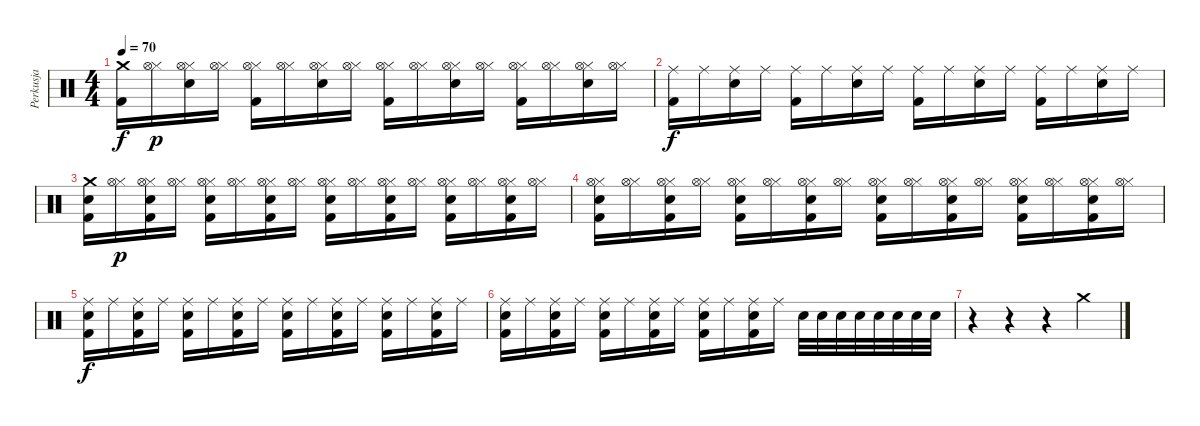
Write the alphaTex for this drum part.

\track ("Perkusja" "Perkusja") {instrument percussion}
\staff {score}
\articulation defaults
\ts (4 4)
\tempo 70
\clef neutral
\ks c
("Kick (hit) 2" "Crash medium (hit)").16{dy f} ("Hi-Hat (closed)" "Hi-Hat (open)").16{dy p} ("Electric Snare (hit)" "Hi-Hat (closed)" "Hi-Hat (open)").16 ("Hi-Hat (closed)" "Hi-Hat (open)").16 ("Kick (hit) 2" "Hi-Hat (closed)" "Hi-Hat (open)").16 ("Hi-Hat (closed)" "Hi-Hat (open)").16 ("Electric Snare (hit)" "Hi-Hat (closed)" "Hi-Hat (open)").16 ("Hi-Hat (closed)" "Hi-Hat (open)").16 ("Kick (hit) 2" "Hi-Hat (closed)" "Hi-Hat (open)").16 ("Hi-Hat (closed)" "Hi-Hat (open)").16 ("Electric Snare (hit)" "Hi-Hat (closed)" "Hi-Hat (open)").16 ("Hi-Hat (closed)" "Hi-Hat (open)").16 ("Kick (hit) 2" "Hi-Hat (closed)" "Hi-Hat (open)").16 ("Hi-Hat (closed)" "Hi-Hat (open)").16 ("Electric Snare (hit)" "Hi-Hat (closed)" "Hi-Hat (open)").16 ("Hi-Hat (closed)" "Hi-Hat (open)").16 |
("Kick (hit) 2" "Ride (middle)").16{dy f} "Ride (middle)".16 ("Electric Snare (hit)" "Ride (middle)").16 "Ride (middle)".16 ("Kick (hit) 2" "Ride (middle)").16 "Ride (middle)".16 ("Electric Snare (hit)" "Ride (middle)").16 "Ride (middle)".16 ("Kick (hit) 2" "Ride (middle)").16 "Ride (middle)".16 ("Electric Snare (hit)" "Ride (middle)").16 "Ride (middle)".16 ("Kick (hit) 2" "Ride (middle)").16 "Ride (middle)".16 ("Electric Snare (hit)" "Ride (middle)").16 "Ride (middle)".16 |
("Kick (hit) 2" "Crash medium (hit)" "Electric Snare (hit)").16 ("Hi-Hat (closed)" "Hi-Hat (open)").16{dy p} ("Kick (hit) 2" "Hi-Hat (closed)" "Hi-Hat (open)" "Electric Snare (hit)").16 ("Hi-Hat (closed)" "Hi-Hat (open)").16 ("Kick (hit) 2" "Hi-Hat (closed)" "Hi-Hat (open)" "Electric Snare (hit)").16 ("Hi-Hat (closed)" "Hi-Hat (open)").16 ("Kick (hit) 2" "Hi-Hat (closed)" "Hi-Hat (open)" "Electric Snare (hit)").16 ("Hi-Hat (closed)" "Hi-Hat (open)").16 ("Kick (hit) 2" "Hi-Hat (closed)" "Hi-Hat (open)" "Electric Snare (hit)").16 ("Hi-Hat (closed)" "Hi-Hat (open)").16 ("Kick (hit) 2" "Hi-Hat (closed)" "Hi-Hat (open)" "Electric Snare (hit)").16 ("Hi-Hat (closed)" "Hi-Hat (open)").16 ("Kick (hit) 2" "Hi-Hat (closed)" "Hi-Hat (open)" "Electric Snare (hit)").16 ("Hi-Hat (closed)" "Hi-Hat (open)").16 ("Kick (hit) 2" "Hi-Hat (closed)" "Hi-Hat (open)" "Electric Snare (hit)").16 ("Hi-Hat (closed)" "Hi-Hat (open)").16 |
("Kick (hit) 2" "Hi-Hat (closed)" "Hi-Hat (open)" "Electric Snare (hit)").16 ("Hi-Hat (closed)" "Hi-Hat (open)").16 ("Kick (hit) 2" "Hi-Hat (closed)" "Hi-Hat (open)" "Electric Snare (hit)").16 ("Hi-Hat (closed)" "Hi-Hat (open)").16 ("Kick (hit) 2" "Hi-Hat (closed)" "Hi-Hat (open)" "Electric Snare (hit)").16 ("Hi-Hat (closed)" "Hi-Hat (open)").16 ("Kick (hit) 2" "Hi-Hat (closed)" "Hi-Hat (open)" "Electric Snare (hit)").16 ("Hi-Hat (closed)" "Hi-Hat (open)").16 ("Kick (hit) 2" "Hi-Hat (closed)" "Hi-Hat (open)" "Electric Snare (hit)").16 ("Hi-Hat (closed)" "Hi-Hat (open)").16 ("Kick (hit) 2" "Hi-Hat (closed)" "Hi-Hat (open)" "Electric Snare (hit)").16 ("Hi-Hat (closed)" "Hi-Hat (open)").16 ("Kick (hit) 2" "Hi-Hat (closed)" "Hi-Hat (open)" "Electric Snare (hit)").16 ("Hi-Hat (closed)" "Hi-Hat (open)").16 ("Kick (hit) 2" "Hi-Hat (closed)" "Hi-Hat (open)" "Electric Snare (hit)").16 ("Hi-Hat (closed)" "Hi-Hat (open)").16 |
("Kick (hit) 2" "Electric Snare (hit)" "Ride (middle)").16{dy f} "Ride (middle)".16 ("Kick (hit) 2" "Electric Snare (hit)" "Ride (middle)").16 "Ride (middle)".16 ("Kick (hit) 2" "Electric Snare (hit)" "Ride (middle)").16 "Ride (middle)".16 ("Kick (hit) 2" "Electric Snare (hit)" "Ride (middle)").16 "Ride (middle)".16 ("Kick (hit) 2" "Electric Snare (hit)" "Ride (middle)").16 "Ride (middle)".16 ("Kick (hit) 2" "Electric Snare (hit)" "Ride (middle)").16 "Ride (middle)".16 ("Kick (hit) 2" "Electric Snare (hit)" "Ride (middle)").16 "Ride (middle)".16 ("Kick (hit) 2" "Electric Snare (hit)" "Ride (middle)").16 "Ride (middle)".16 |
("Kick (hit) 2" "Electric Snare (hit)" "Ride (middle)").16 "Ride (middle)".16 ("Kick (hit) 2" "Electric Snare (hit)" "Ride (middle)").16 "Ride (middle)".16 ("Kick (hit) 2" "Electric Snare (hit)" "Ride (middle)").16 "Ride (middle)".16 ("Kick (hit) 2" "Electric Snare (hit)" "Ride (middle)").16 "Ride (middle)".16 ("Kick (hit) 2" "Electric Snare (hit)" "Ride (middle)").16 "Ride (middle)".16 ("Kick (hit) 2" "Electric Snare (hit)" "Ride (middle)").16 "Ride (middle)".16 "Electric Snare (hit)".32 "Electric Snare (hit)".32 "Electric Snare (hit)".32 "Electric Snare (hit)".32 "Electric Snare (hit)".32 "Electric Snare (hit)".32 "Electric Snare (hit)".32 "Electric Snare (hit)".32 |
r.4 r.4 r.4 "Crash medium (hit)".4
